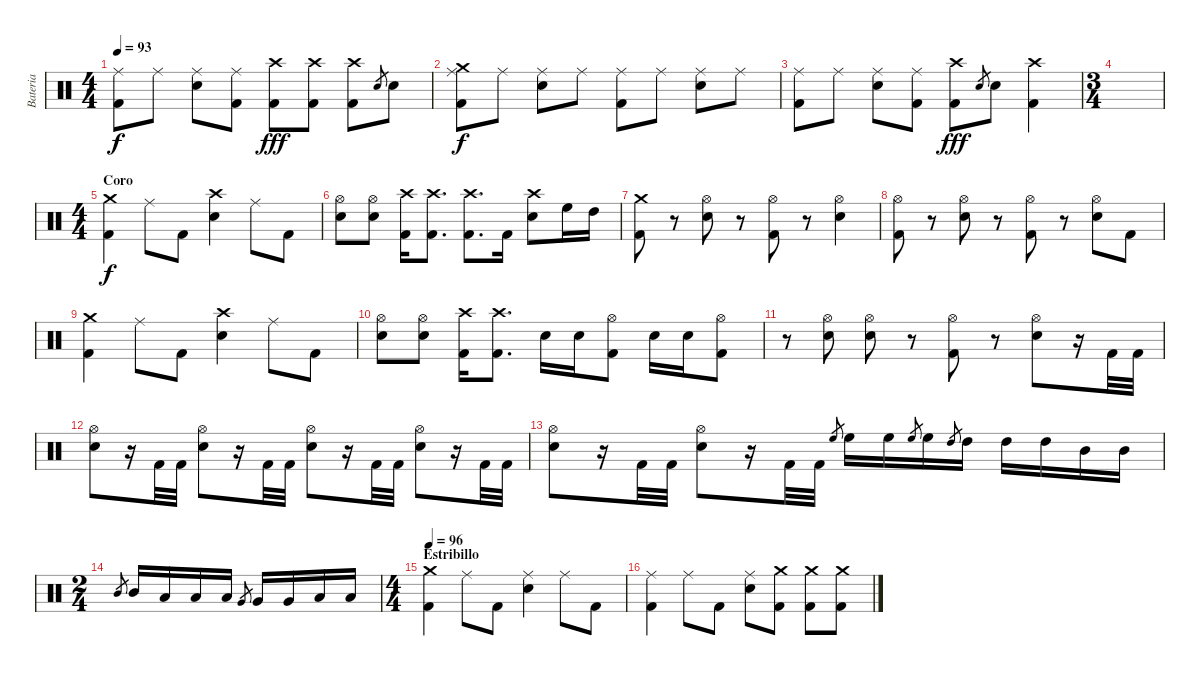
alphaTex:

\track ("Bateria" "Bateria") {instrument percussion}
\staff {score}
\articulation defaults
\ts (4 4)
\tempo 93
\clef neutral
\ks c
("Kick (hit) 2" "Ride (middle)").8{dy f} "Ride (middle)".8 ("Ride (middle)" "Snare (hit) 2").8 ("Ride (middle)" "Kick (hit) 2").8 ("Crash high (hit)" "Kick (hit) 2").8{dy fff} ("Crash high (hit)" "Kick (hit) 2").8 ("Crash high (hit)" "Kick (hit) 2").8 "Snare (hit) 2".8{gr} "Snare (hit) 2".8 |
("Crash medium (hit)" "Kick (hit) 2" "Ride (middle)").8{dy f volume 16} "Ride (middle)".8 ("Ride (middle)" "Snare (hit) 2").8 "Ride (middle)".8 ("Ride (middle)" "Kick (hit) 2").8 "Ride (middle)".8 ("Ride (middle)" "Snare (hit) 2").8 "Ride (middle)".8 |
("Kick (hit) 2" "Ride (middle)").8 "Ride (middle)".8 ("Ride (middle)" "Snare (hit) 2").8 ("Ride (middle)" "Kick (hit) 2").8 ("Crash high (hit)" "Kick (hit) 2").8{dy fff} "Snare (hit) 2".8{gr} "Snare (hit) 2".8 ("Crash high (hit)" "Kick (hit) 2").4 |
\ts (3 4)
|
\ts (4 4)
\section ("" "Coro")
("Kick (hit) 2" "Crash medium (hit)").4{dy f} "Ride (middle)".8 "Kick (hit) 2".8 ("Snare (hit) 2" "Crash high (hit)").4 "Ride (middle)".8 "Kick (hit) 2".8 |
("Hi-Hat (open)" "Snare (hit) 2").8 ("Hi-Hat (open)" "Snare (hit) 2").8 ("Kick (hit) 2" "Crash high (hit)").16 ("Kick (hit) 2" "Crash high (hit)").8{d} ("Kick (hit) 2" "Crash high (hit)").8{d} "Kick (hit) 2".16 ("Snare (hit) 2" "Crash high (hit)").8 "High Floor Tom (hit)".16 "High Tom (hit)".16 |
("Crash medium (hit)" "Kick (hit) 2").8 r.8 ("Snare (hit) 2" "Hi-Hat (open)").8 r.8 ("Kick (hit) 2" "Hi-Hat (open)").8 r.8 ("Snare (hit) 2" "Hi-Hat (open)").4 |
("Hi-Hat (open)" "Kick (hit) 2").8 r.8 ("Snare (hit) 2" "Hi-Hat (open)").8 r.8 ("Kick (hit) 2" "Hi-Hat (open)").8 r.8 ("Snare (hit) 2" "Hi-Hat (open)").8 "Kick (hit) 2".8 |
("Kick (hit) 2" "Crash medium (hit)").4 "Ride (middle)".8 "Kick (hit) 2".8 ("Snare (hit) 2" "Crash high (hit)").4 "Ride (middle)".8 "Kick (hit) 2".8 |
("Hi-Hat (open)" "Snare (hit) 2").8 ("Hi-Hat (open)" "Snare (hit) 2").8 ("Kick (hit) 2" "Crash high (hit)").16 ("Kick (hit) 2" "Crash high (hit)").8{d} "Snare (hit) 2".16 "Snare (hit) 2".16 ("Kick (hit) 2" "Hi-Hat (open)").8 "Snare (hit) 2".16 "Snare (hit) 2".16 ("Kick (hit) 2" "Hi-Hat (open)").8 |
r.8 ("Hi-Hat (open)" "Snare (hit) 2").8 ("Snare (hit) 2" "Hi-Hat (open)").8 r.8 ("Kick (hit) 2" "Hi-Hat (open)").8 r.8 ("Snare (hit) 2" "Hi-Hat (open)").8 r.16 "Kick (hit) 2".32 "Kick (hit) 2".32 |
("Hi-Hat (open)" "Snare (hit) 2").8 r.16 "Kick (hit) 2".32 "Kick (hit) 2".32 ("Snare (hit) 2" "Hi-Hat (open)").8 r.16 "Kick (hit) 2".32 "Kick (hit) 2".32 ("Snare (hit) 2" "Hi-Hat (open)").8 r.16 "Kick (hit) 2".32 "Kick (hit) 2".32 ("Snare (hit) 2" "Hi-Hat (open)").8 r.16 "Kick (hit) 2".32 "Kick (hit) 2".32 |
("Hi-Hat (open)" "Snare (hit) 2").8 r.16 "Kick (hit) 2".32 "Kick (hit) 2".32 ("Snare (hit) 2" "Hi-Hat (open)").8 r.16 "Kick (hit) 2".32 "Kick (hit) 2".32 "High Floor Tom (hit)".8{gr} "High Floor Tom (hit)".16 "High Floor Tom (hit)".16 "High Floor Tom (hit)".8{gr} "High Floor Tom (hit)".16 "High Tom (hit)".8{gr} "High Tom (hit)".16 "High Tom (hit)".16 "High Tom (hit)".16 "Mid Tom (hit)".16 "Mid Tom (hit)".16 |
\ts (2 4)
"Mid Tom (hit)".8{gr} "Mid Tom (hit)".16 "Low Tom (hit)".16 "Low Tom (hit)".16 "Low Tom (hit)".16 "Very Low Tom (hit)".8{gr} "Very Low Tom (hit)".16 "Very Low Tom (hit)".16 "Low Floor Tom (hit)".16 "Low Floor Tom (hit)".16 |
\ts (4 4)
\section ("" "Estribillo")
\tempo 96
("Crash medium (hit)" "Kick (hit) 2").4 "Ride (middle)".8 "Kick (hit) 2".8 ("Ride (middle)" "Snare (hit) 2").4 "Ride (middle)".8 "Kick (hit) 2".8 |
("Ride (middle)" "Kick (hit) 2").4 "Ride (middle)".8 "Kick (hit) 2".8 ("Ride (middle)" "Snare (hit) 2").8 ("Crash medium (hit)" "Kick (hit) 2").8 ("Crash medium (hit)" "Kick (hit) 2").8 ("Crash medium (hit)" "Kick (hit) 2").8
